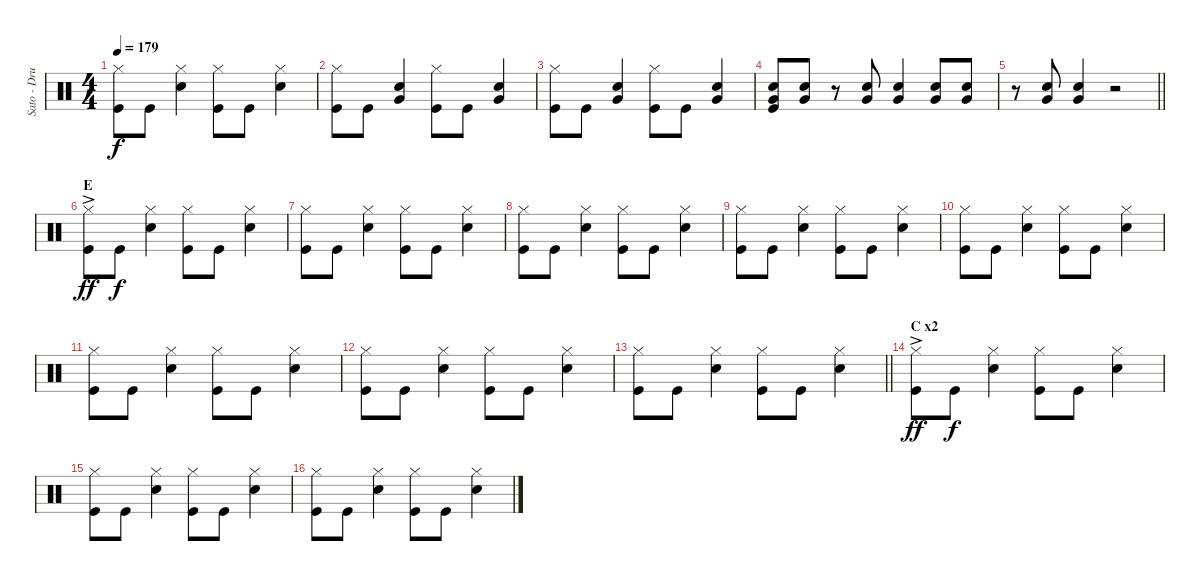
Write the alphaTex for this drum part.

\track ("Sato - Drums" "Sato - Dru") {instrument percussion}
\staff {score}
\articulation defaults
\ts (4 4)
\tempo 179
\clef neutral
\ks c
("Hi-Hat (closed)" "Kick (hit)").8{dy f} "Kick (hit)".8 ("Hi-Hat (closed)" "Electric Snare (hit)").4 ("Hi-Hat (closed)" "Kick (hit)").8 "Kick (hit)".8 ("Hi-Hat (closed)" "Electric Snare (hit)").4 |
("Hi-Hat (closed)" "Kick (hit)").8 "Kick (hit)".8 ("Electric Snare (hit)" "Very Low Tom (hit)").4 ("Hi-Hat (closed)" "Kick (hit)").8 "Kick (hit)".8 ("Electric Snare (hit)" "Very Low Tom (hit)").4 |
("Hi-Hat (closed)" "Kick (hit)").8 "Kick (hit)".8 ("Electric Snare (hit)" "Very Low Tom (hit)").4 ("Hi-Hat (closed)" "Kick (hit)").8 "Kick (hit)".8 ("Electric Snare (hit)" "Very Low Tom (hit)").4 |
("Electric Snare (hit)" "Very Low Tom (hit)" "Kick (hit)").8 ("Electric Snare (hit)" "Very Low Tom (hit)").8 r.8 ("Electric Snare (hit)" "Very Low Tom (hit)").8 ("Electric Snare (hit)" "Very Low Tom (hit)").4 ("Electric Snare (hit)" "Very Low Tom (hit)").8 ("Electric Snare (hit)" "Very Low Tom (hit)").8 |
\barLineRight lightlight
r.8 ("Electric Snare (hit)" "Very Low Tom (hit)").8 ("Electric Snare (hit)" "Very Low Tom (hit)").4 r.2 |
\section ("" "E")
("Hi-Hat (closed)"{ac} "Kick (hit)"{ac}).8{dy ff} "Kick (hit)".8{dy f} ("Hi-Hat (closed)" "Electric Snare (hit)").4 ("Hi-Hat (closed)" "Kick (hit)").8 "Kick (hit)".8 ("Hi-Hat (closed)" "Electric Snare (hit)").4 |
("Hi-Hat (closed)" "Kick (hit)").8 "Kick (hit)".8 ("Hi-Hat (closed)" "Electric Snare (hit)").4 ("Hi-Hat (closed)" "Kick (hit)").8 "Kick (hit)".8 ("Hi-Hat (closed)" "Electric Snare (hit)").4 |
("Hi-Hat (closed)" "Kick (hit)").8 "Kick (hit)".8 ("Hi-Hat (closed)" "Electric Snare (hit)").4 ("Hi-Hat (closed)" "Kick (hit)").8 "Kick (hit)".8 ("Hi-Hat (closed)" "Electric Snare (hit)").4 |
("Hi-Hat (closed)" "Kick (hit)").8 "Kick (hit)".8 ("Hi-Hat (closed)" "Electric Snare (hit)").4 ("Hi-Hat (closed)" "Kick (hit)").8 "Kick (hit)".8 ("Hi-Hat (closed)" "Electric Snare (hit)").4 |
("Hi-Hat (closed)" "Kick (hit)").8 "Kick (hit)".8 ("Hi-Hat (closed)" "Electric Snare (hit)").4 ("Hi-Hat (closed)" "Kick (hit)").8 "Kick (hit)".8 ("Hi-Hat (closed)" "Electric Snare (hit)").4 |
("Hi-Hat (closed)" "Kick (hit)").8 "Kick (hit)".8 ("Hi-Hat (closed)" "Electric Snare (hit)").4 ("Hi-Hat (closed)" "Kick (hit)").8 "Kick (hit)".8 ("Hi-Hat (closed)" "Electric Snare (hit)").4 |
("Hi-Hat (closed)" "Kick (hit)").8 "Kick (hit)".8 ("Hi-Hat (closed)" "Electric Snare (hit)").4 ("Hi-Hat (closed)" "Kick (hit)").8 "Kick (hit)".8 ("Hi-Hat (closed)" "Electric Snare (hit)").4 |
\barLineRight lightlight
("Hi-Hat (closed)" "Kick (hit)").8 "Kick (hit)".8 ("Hi-Hat (closed)" "Electric Snare (hit)").4 ("Hi-Hat (closed)" "Kick (hit)").8 "Kick (hit)".8 ("Hi-Hat (closed)" "Electric Snare (hit)").4 |
\section ("" "C x2")
("Hi-Hat (closed)"{ac} "Kick (hit)"{ac}).8{dy ff} "Kick (hit)".8{dy f} ("Hi-Hat (closed)" "Electric Snare (hit)").4 ("Hi-Hat (closed)" "Kick (hit)").8 "Kick (hit)".8 ("Hi-Hat (closed)" "Electric Snare (hit)").4 |
("Hi-Hat (closed)" "Kick (hit)").8 "Kick (hit)".8 ("Hi-Hat (closed)" "Electric Snare (hit)").4 ("Hi-Hat (closed)" "Kick (hit)").8 "Kick (hit)".8 ("Hi-Hat (closed)" "Electric Snare (hit)").4 |
("Hi-Hat (closed)" "Kick (hit)").8 "Kick (hit)".8 ("Hi-Hat (closed)" "Electric Snare (hit)").4 ("Hi-Hat (closed)" "Kick (hit)").8 "Kick (hit)".8 ("Hi-Hat (closed)" "Electric Snare (hit)").4
